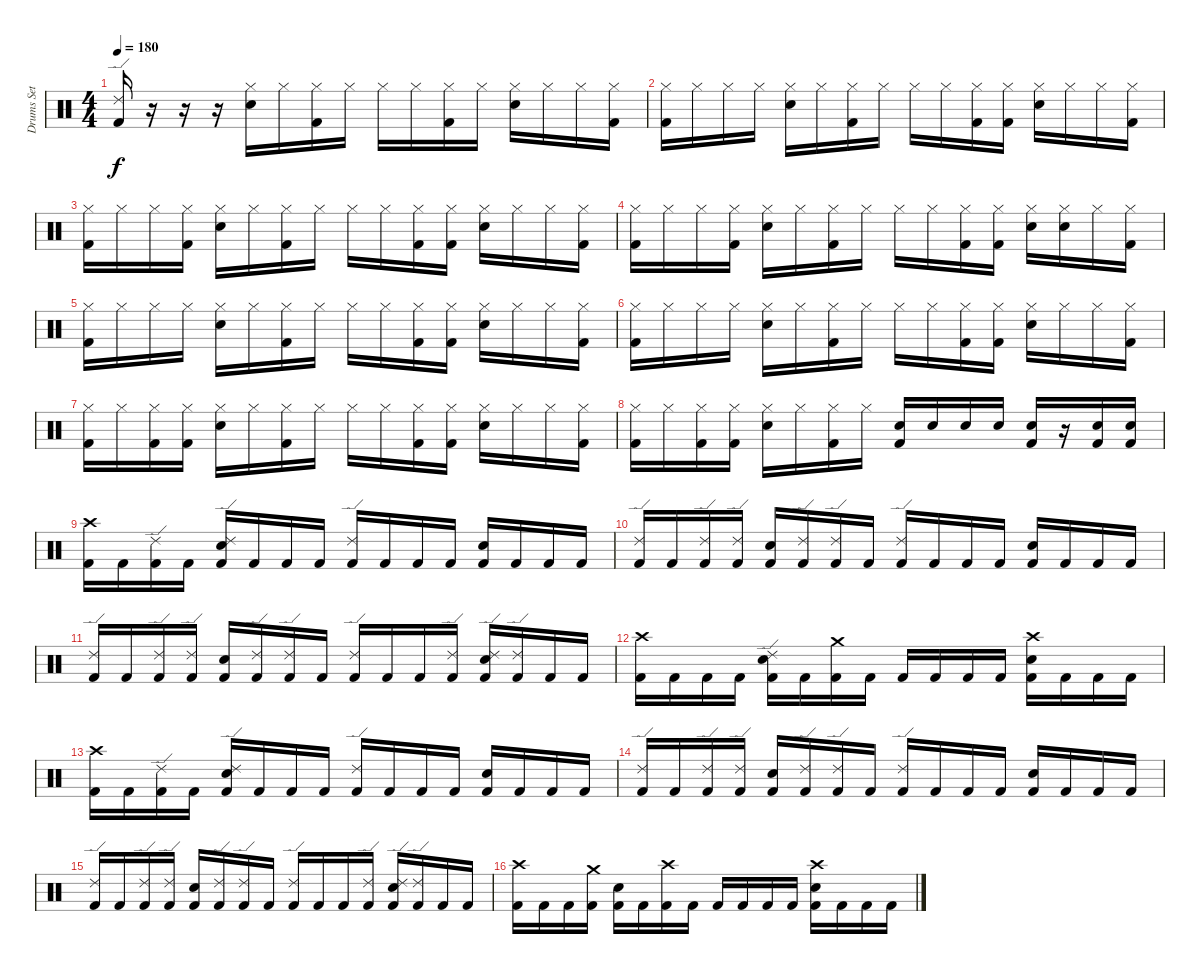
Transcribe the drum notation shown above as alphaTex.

\track ("Drums Set" "Drums Set") {instrument percussion}
\staff {score}
\articulation defaults
\ts (4 4)
\tempo 180
\clef neutral
\ks c
("Ride (edge) 2" "Kick (hit) 2").16{dy f} r.16 r.16 r.16 ("Hi-Hat (closed)" "Snare (hit) 2").16 "Hi-Hat (closed)".16 ("Hi-Hat (closed)" "Kick (hit) 2").16 "Hi-Hat (closed)".16 "Hi-Hat (closed)".16 "Hi-Hat (closed)".16 ("Hi-Hat (closed)" "Kick (hit) 2").16 "Hi-Hat (closed)".16 ("Hi-Hat (closed)" "Snare (hit) 2").16 "Hi-Hat (closed)".16 "Hi-Hat (closed)".16 ("Hi-Hat (closed)" "Kick (hit) 2").16 |
("Hi-Hat (closed)" "Kick (hit) 2").16 "Hi-Hat (closed)".16 "Hi-Hat (closed)".16 "Hi-Hat (closed)".16 ("Hi-Hat (closed)" "Snare (hit) 2").16 "Hi-Hat (closed)".16 ("Hi-Hat (closed)" "Kick (hit) 2").16 "Hi-Hat (closed)".16 "Hi-Hat (closed)".16 "Hi-Hat (closed)".16 ("Hi-Hat (closed)" "Kick (hit) 2").16 ("Hi-Hat (closed)" "Kick (hit) 2").16 ("Hi-Hat (closed)" "Snare (hit) 2").16 "Hi-Hat (closed)".16 "Hi-Hat (closed)".16 ("Hi-Hat (closed)" "Kick (hit) 2").16 |
("Hi-Hat (closed)" "Kick (hit) 2").16 "Hi-Hat (closed)".16 "Hi-Hat (closed)".16 ("Hi-Hat (closed)" "Kick (hit) 2").16 ("Hi-Hat (closed)" "Snare (hit) 2").16 "Hi-Hat (closed)".16 ("Hi-Hat (closed)" "Kick (hit) 2").16 "Hi-Hat (closed)".16 "Hi-Hat (closed)".16 "Hi-Hat (closed)".16 ("Hi-Hat (closed)" "Kick (hit) 2").16 ("Hi-Hat (closed)" "Kick (hit) 2").16 ("Hi-Hat (closed)" "Snare (hit) 2").16 "Hi-Hat (closed)".16 "Hi-Hat (closed)".16 ("Hi-Hat (closed)" "Kick (hit) 2").16 |
("Hi-Hat (closed)" "Kick (hit) 2").16 "Hi-Hat (closed)".16 "Hi-Hat (closed)".16 ("Hi-Hat (closed)" "Kick (hit) 2").16 ("Hi-Hat (closed)" "Snare (hit) 2").16 "Hi-Hat (closed)".16 ("Hi-Hat (closed)" "Kick (hit) 2").16 "Hi-Hat (closed)".16 "Hi-Hat (closed)".16 "Hi-Hat (closed)".16 ("Hi-Hat (closed)" "Kick (hit) 2").16 ("Hi-Hat (closed)" "Kick (hit) 2").16 ("Hi-Hat (closed)" "Snare (hit) 2").16 ("Hi-Hat (closed)" "Snare (hit) 2").16 "Hi-Hat (closed)".16 ("Hi-Hat (closed)" "Kick (hit) 2").16 |
("Hi-Hat (closed)" "Kick (hit) 2").16 "Hi-Hat (closed)".16 "Hi-Hat (closed)".16 "Hi-Hat (closed)".16 ("Hi-Hat (closed)" "Snare (hit) 2").16 "Hi-Hat (closed)".16 ("Hi-Hat (closed)" "Kick (hit) 2").16 "Hi-Hat (closed)".16 "Hi-Hat (closed)".16 "Hi-Hat (closed)".16 ("Hi-Hat (closed)" "Kick (hit) 2").16 ("Hi-Hat (closed)" "Kick (hit) 2").16 ("Hi-Hat (closed)" "Snare (hit) 2").16 "Hi-Hat (closed)".16 "Hi-Hat (closed)".16 ("Hi-Hat (closed)" "Kick (hit) 2").16 |
("Hi-Hat (closed)" "Kick (hit) 2").16 "Hi-Hat (closed)".16 "Hi-Hat (closed)".16 "Hi-Hat (closed)".16 ("Hi-Hat (closed)" "Snare (hit) 2").16 "Hi-Hat (closed)".16 ("Hi-Hat (closed)" "Kick (hit) 2").16 "Hi-Hat (closed)".16 "Hi-Hat (closed)".16 "Hi-Hat (closed)".16 ("Hi-Hat (closed)" "Kick (hit) 2").16 ("Hi-Hat (closed)" "Kick (hit) 2").16 ("Hi-Hat (closed)" "Snare (hit) 2").16 "Hi-Hat (closed)".16 "Hi-Hat (closed)".16 ("Hi-Hat (closed)" "Kick (hit) 2").16 |
("Hi-Hat (closed)" "Kick (hit) 2").16 "Hi-Hat (closed)".16 ("Hi-Hat (closed)" "Kick (hit) 2").16 ("Hi-Hat (closed)" "Kick (hit) 2").16 ("Hi-Hat (closed)" "Snare (hit) 2").16 "Hi-Hat (closed)".16 ("Hi-Hat (closed)" "Kick (hit) 2").16 "Hi-Hat (closed)".16 "Hi-Hat (closed)".16 "Hi-Hat (closed)".16 ("Hi-Hat (closed)" "Kick (hit) 2").16 ("Hi-Hat (closed)" "Kick (hit) 2").16 ("Hi-Hat (closed)" "Snare (hit) 2").16 "Hi-Hat (closed)".16 "Hi-Hat (closed)".16 ("Hi-Hat (closed)" "Kick (hit) 2").16 |
("Hi-Hat (closed)" "Kick (hit) 2").16 "Hi-Hat (closed)".16 ("Hi-Hat (closed)" "Kick (hit) 2").16 ("Hi-Hat (closed)" "Kick (hit) 2").16 ("Hi-Hat (closed)" "Snare (hit) 2").16 "Hi-Hat (closed)".16 ("Hi-Hat (closed)" "Kick (hit) 2").16 "Hi-Hat (closed)".16 ("Snare (hit) 2" "Kick (hit) 2").16 "Snare (hit) 2".16 "Snare (hit) 2".16 "Snare (hit) 2".16 ("Snare (hit) 2" "Kick (hit) 2").16 r.16 ("Snare (hit) 2" "Kick (hit) 2").16 ("Snare (hit) 2" "Kick (hit) 2").16 |
("Crash high (hit)" "Kick (hit) 2").16 "Kick (hit) 2".16 ("Ride (edge) 2" "Kick (hit) 2").16 "Kick (hit) 2".16 ("Ride (edge) 2" "Snare (hit) 2" "Kick (hit) 2").16 "Kick (hit) 2".16 "Kick (hit) 2".16 "Kick (hit) 2".16 ("Ride (edge) 2" "Kick (hit) 2").16 "Kick (hit) 2".16 "Kick (hit) 2".16 "Kick (hit) 2".16 ("Snare (hit) 2" "Kick (hit) 2").16 "Kick (hit) 2".16 "Kick (hit) 2".16 "Kick (hit) 2".16 |
("Ride (edge) 2" "Kick (hit) 2").16 "Kick (hit) 2".16 ("Ride (edge) 2" "Kick (hit) 2").16 ("Ride (edge) 2" "Kick (hit) 2").16 ("Snare (hit) 2" "Kick (hit) 2").16 ("Ride (edge) 2" "Kick (hit) 2").16 ("Ride (edge) 2" "Kick (hit) 2").16 "Kick (hit) 2".16 ("Ride (edge) 2" "Kick (hit) 2").16 "Kick (hit) 2".16 "Kick (hit) 2".16 "Kick (hit) 2".16 ("Snare (hit) 2" "Kick (hit) 2").16 "Kick (hit) 2".16 "Kick (hit) 2".16 "Kick (hit) 2".16 |
("Ride (edge) 2" "Kick (hit) 2").16 "Kick (hit) 2".16 ("Ride (edge) 2" "Kick (hit) 2").16 ("Ride (edge) 2" "Kick (hit) 2").16 ("Snare (hit) 2" "Kick (hit) 2").16 ("Ride (edge) 2" "Kick (hit) 2").16 ("Ride (edge) 2" "Kick (hit) 2").16 "Kick (hit) 2".16 ("Ride (edge) 2" "Kick (hit) 2").16 "Kick (hit) 2".16 "Kick (hit) 2".16 ("Ride (edge) 2" "Kick (hit) 2").16 ("Ride (edge) 2" "Snare (hit) 2" "Kick (hit) 2").16 ("Ride (edge) 2" "Kick (hit) 2").16 "Kick (hit) 2".16 "Kick (hit) 2".16 |
("Crash high (hit)" "Kick (hit) 2").16 "Kick (hit) 2".16 "Kick (hit) 2".16 "Kick (hit) 2".16 ("Ride (edge) 2" "Snare (hit) 2" "Kick (hit) 2").16 "Kick (hit) 2".16 ("Crash medium (hit)" "Kick (hit) 2").16 "Kick (hit) 2".16 "Kick (hit) 2".16 "Kick (hit) 2".16 "Kick (hit) 2".16 "Kick (hit) 2".16 ("Crash high (hit)" "Snare (hit) 2" "Kick (hit) 2").16 "Kick (hit) 2".16 "Kick (hit) 2".16 "Kick (hit) 2".16 |
("Crash high (hit)" "Kick (hit) 2").16 "Kick (hit) 2".16 ("Ride (edge) 2" "Kick (hit) 2").16 "Kick (hit) 2".16 ("Ride (edge) 2" "Snare (hit) 2" "Kick (hit) 2").16 "Kick (hit) 2".16 "Kick (hit) 2".16 "Kick (hit) 2".16 ("Ride (edge) 2" "Kick (hit) 2").16 "Kick (hit) 2".16 "Kick (hit) 2".16 "Kick (hit) 2".16 ("Snare (hit) 2" "Kick (hit) 2").16 "Kick (hit) 2".16 "Kick (hit) 2".16 "Kick (hit) 2".16 |
("Ride (edge) 2" "Kick (hit) 2").16 "Kick (hit) 2".16 ("Ride (edge) 2" "Kick (hit) 2").16 ("Ride (edge) 2" "Kick (hit) 2").16 ("Snare (hit) 2" "Kick (hit) 2").16 ("Ride (edge) 2" "Kick (hit) 2").16 ("Ride (edge) 2" "Kick (hit) 2").16 "Kick (hit) 2".16 ("Ride (edge) 2" "Kick (hit) 2").16 "Kick (hit) 2".16 "Kick (hit) 2".16 "Kick (hit) 2".16 ("Snare (hit) 2" "Kick (hit) 2").16 "Kick (hit) 2".16 "Kick (hit) 2".16 "Kick (hit) 2".16 |
("Ride (edge) 2" "Kick (hit) 2").16 "Kick (hit) 2".16 ("Ride (edge) 2" "Kick (hit) 2").16 ("Ride (edge) 2" "Kick (hit) 2").16 ("Snare (hit) 2" "Kick (hit) 2").16 ("Ride (edge) 2" "Kick (hit) 2").16 ("Ride (edge) 2" "Kick (hit) 2").16 "Kick (hit) 2".16 ("Ride (edge) 2" "Kick (hit) 2").16 "Kick (hit) 2".16 "Kick (hit) 2".16 ("Ride (edge) 2" "Kick (hit) 2").16 ("Ride (edge) 2" "Snare (hit) 2" "Kick (hit) 2").16 ("Ride (edge) 2" "Kick (hit) 2").16 "Kick (hit) 2".16 "Kick (hit) 2".16 |
("Crash high (hit)" "Kick (hit) 2").16 "Kick (hit) 2".16 "Kick (hit) 2".16 ("Crash medium (hit)" "Kick (hit) 2").16 ("Snare (hit) 2" "Kick (hit) 2").16 "Kick (hit) 2".16 ("Crash high (hit)" "Kick (hit) 2").16 "Kick (hit) 2".16 "Kick (hit) 2".16 "Kick (hit) 2".16 "Kick (hit) 2".16 "Kick (hit) 2".16 ("Crash high (hit)" "Snare (hit) 2" "Kick (hit) 2").16 "Kick (hit) 2".16 "Kick (hit) 2".16 "Kick (hit) 2".16
